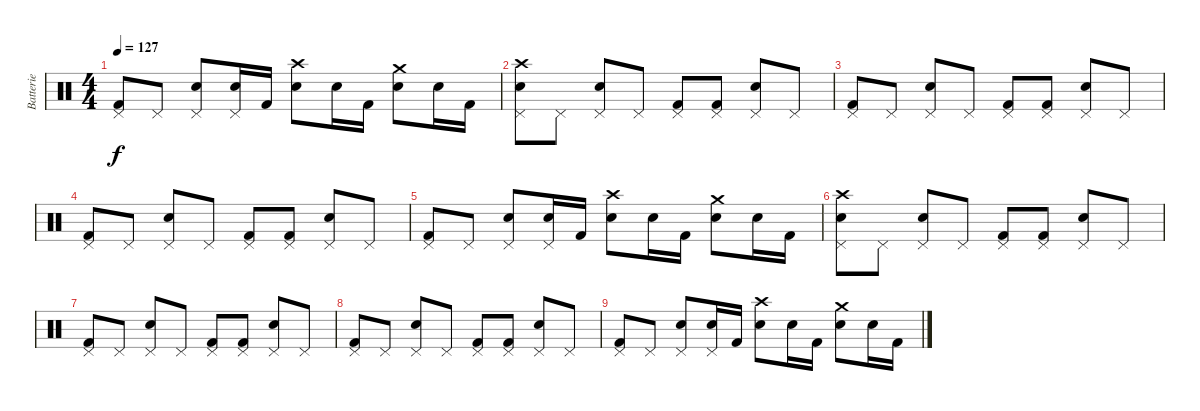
\track ("Batterie" "Batterie") {instrument percussion}
\staff {score}
\articulation defaults
\ts (4 4)
\tempo 127
\clef neutral
\ks c
("Pedal Hi-Hat (hit)" "Kick (hit) 2").8{dy f} "Pedal Hi-Hat (hit)".8 ("Pedal Hi-Hat (hit)" "Electric Snare (hit)").8 ("Pedal Hi-Hat (hit)" "Electric Snare (hit)").16 "Kick (hit) 2".16 ("Electric Snare (hit)" "Crash high (hit)").8 "Electric Snare (hit)".16 "Kick (hit) 2".16 ("Electric Snare (hit)" "Crash medium (hit)").8 "Electric Snare (hit)".16 "Kick (hit) 2".16 |
("Pedal Hi-Hat (hit)" "Electric Snare (hit)" "Crash high (hit)").8 "Pedal Hi-Hat (hit)".8 ("Pedal Hi-Hat (hit)" "Electric Snare (hit)").8 "Pedal Hi-Hat (hit)".8 ("Pedal Hi-Hat (hit)" "Kick (hit) 2").8 ("Pedal Hi-Hat (hit)" "Kick (hit) 2").8 ("Pedal Hi-Hat (hit)" "Electric Snare (hit)").8 "Pedal Hi-Hat (hit)".8 |
("Pedal Hi-Hat (hit)" "Kick (hit) 2").8 "Pedal Hi-Hat (hit)".8 ("Pedal Hi-Hat (hit)" "Electric Snare (hit)").8 "Pedal Hi-Hat (hit)".8 ("Pedal Hi-Hat (hit)" "Kick (hit) 2").8 ("Pedal Hi-Hat (hit)" "Kick (hit) 2").8 ("Pedal Hi-Hat (hit)" "Electric Snare (hit)").8 "Pedal Hi-Hat (hit)".8 |
("Pedal Hi-Hat (hit)" "Kick (hit) 2").8 "Pedal Hi-Hat (hit)".8 ("Pedal Hi-Hat (hit)" "Electric Snare (hit)").8 "Pedal Hi-Hat (hit)".8 ("Pedal Hi-Hat (hit)" "Kick (hit) 2").8 ("Pedal Hi-Hat (hit)" "Kick (hit) 2").8 ("Pedal Hi-Hat (hit)" "Electric Snare (hit)").8 "Pedal Hi-Hat (hit)".8 |
("Pedal Hi-Hat (hit)" "Kick (hit) 2").8 "Pedal Hi-Hat (hit)".8 ("Pedal Hi-Hat (hit)" "Electric Snare (hit)").8 ("Pedal Hi-Hat (hit)" "Electric Snare (hit)").16 "Kick (hit) 2".16 ("Electric Snare (hit)" "Crash high (hit)").8 "Electric Snare (hit)".16 "Kick (hit) 2".16 ("Electric Snare (hit)" "Crash medium (hit)").8 "Electric Snare (hit)".16 "Kick (hit) 2".16 |
("Pedal Hi-Hat (hit)" "Electric Snare (hit)" "Crash high (hit)").8 "Pedal Hi-Hat (hit)".8 ("Pedal Hi-Hat (hit)" "Electric Snare (hit)").8 "Pedal Hi-Hat (hit)".8 ("Pedal Hi-Hat (hit)" "Kick (hit) 2").8 ("Pedal Hi-Hat (hit)" "Kick (hit) 2").8 ("Pedal Hi-Hat (hit)" "Electric Snare (hit)").8 "Pedal Hi-Hat (hit)".8 |
("Pedal Hi-Hat (hit)" "Kick (hit) 2").8 "Pedal Hi-Hat (hit)".8 ("Pedal Hi-Hat (hit)" "Electric Snare (hit)").8 "Pedal Hi-Hat (hit)".8 ("Pedal Hi-Hat (hit)" "Kick (hit) 2").8 ("Pedal Hi-Hat (hit)" "Kick (hit) 2").8 ("Pedal Hi-Hat (hit)" "Electric Snare (hit)").8 "Pedal Hi-Hat (hit)".8 |
("Pedal Hi-Hat (hit)" "Kick (hit) 2").8 "Pedal Hi-Hat (hit)".8 ("Pedal Hi-Hat (hit)" "Electric Snare (hit)").8 "Pedal Hi-Hat (hit)".8 ("Pedal Hi-Hat (hit)" "Kick (hit) 2").8 ("Pedal Hi-Hat (hit)" "Kick (hit) 2").8 ("Pedal Hi-Hat (hit)" "Electric Snare (hit)").8 "Pedal Hi-Hat (hit)".8 |
("Pedal Hi-Hat (hit)" "Kick (hit) 2").8 "Pedal Hi-Hat (hit)".8 ("Pedal Hi-Hat (hit)" "Electric Snare (hit)").8 ("Pedal Hi-Hat (hit)" "Electric Snare (hit)").16 "Kick (hit) 2".16 ("Electric Snare (hit)" "Crash high (hit)").8 "Electric Snare (hit)".16 "Kick (hit) 2".16 ("Electric Snare (hit)" "Crash medium (hit)").8 "Electric Snare (hit)".16 "Kick (hit) 2".16
